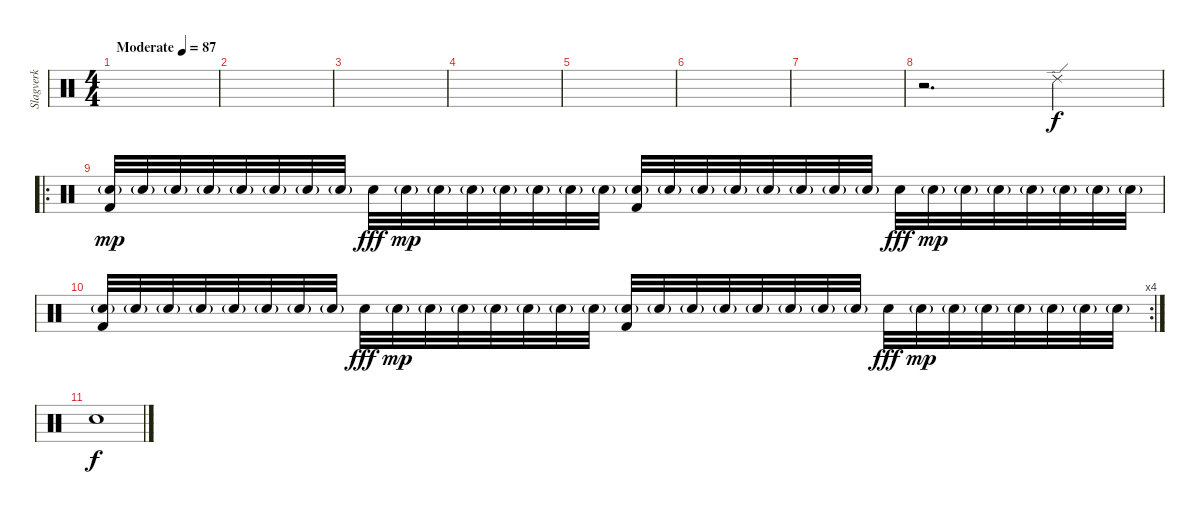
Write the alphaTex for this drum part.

\track ("Slagverk" "Slagverk") {instrument percussion}
\staff {score}
\articulation defaults
\ts (4 4)
\tempo (87 "Moderate")
\clef neutral
\ks c
|
|
|
|
|
|
|
r.2{d} "Ride (edge) 2".4 |
\ro
("Snare (hit) 2"{g} "Kick (hit) 2").32{dy mp} "Snare (hit) 2"{g}.32 "Snare (hit) 2"{g}.32 "Snare (hit) 2"{g}.32 "Snare (hit) 2"{g}.32 "Snare (hit) 2"{g}.32 "Snare (hit) 2"{g}.32 "Snare (hit) 2"{g}.32 "Snare (hit) 2".32{dy fff} "Snare (hit) 2"{g}.32{dy mp} "Snare (hit) 2"{g}.32 "Snare (hit) 2"{g}.32 "Snare (hit) 2"{g}.32 "Snare (hit) 2"{g}.32 "Snare (hit) 2"{g}.32 "Snare (hit) 2"{g}.32 ("Snare (hit) 2"{g} "Kick (hit) 2").32 "Snare (hit) 2"{g}.32 "Snare (hit) 2"{g}.32 "Snare (hit) 2"{g}.32 "Snare (hit) 2"{g}.32 "Snare (hit) 2"{g}.32 "Snare (hit) 2"{g}.32 "Snare (hit) 2"{g}.32 "Snare (hit) 2".32{dy fff} "Snare (hit) 2"{g}.32{dy mp} "Snare (hit) 2"{g}.32 "Snare (hit) 2"{g}.32 "Snare (hit) 2"{g}.32 "Snare (hit) 2"{g}.32 "Snare (hit) 2"{g}.32 "Snare (hit) 2"{g}.32 |
\rc 4
("Snare (hit) 2"{g} "Kick (hit) 2").32 "Snare (hit) 2"{g}.32 "Snare (hit) 2"{g}.32 "Snare (hit) 2"{g}.32 "Snare (hit) 2"{g}.32 "Snare (hit) 2"{g}.32 "Snare (hit) 2"{g}.32 "Snare (hit) 2"{g}.32 "Snare (hit) 2".32{dy fff} "Snare (hit) 2"{g}.32{dy mp} "Snare (hit) 2"{g}.32 "Snare (hit) 2"{g}.32 "Snare (hit) 2"{g}.32 "Snare (hit) 2"{g}.32 "Snare (hit) 2"{g}.32 "Snare (hit) 2"{g}.32 ("Snare (hit) 2"{g} "Kick (hit) 2").32 "Snare (hit) 2"{g}.32 "Snare (hit) 2"{g}.32 "Snare (hit) 2"{g}.32 "Snare (hit) 2"{g}.32 "Snare (hit) 2"{g}.32 "Snare (hit) 2"{g}.32 "Snare (hit) 2"{g}.32 "Snare (hit) 2".32{dy fff} "Snare (hit) 2"{g}.32{dy mp} "Snare (hit) 2"{g}.32 "Snare (hit) 2"{g}.32 "Snare (hit) 2"{g}.32 "Snare (hit) 2"{g}.32 "Snare (hit) 2"{g}.32 "Snare (hit) 2"{g}.32 |
"Snare (hit) 2".1{dy f}
